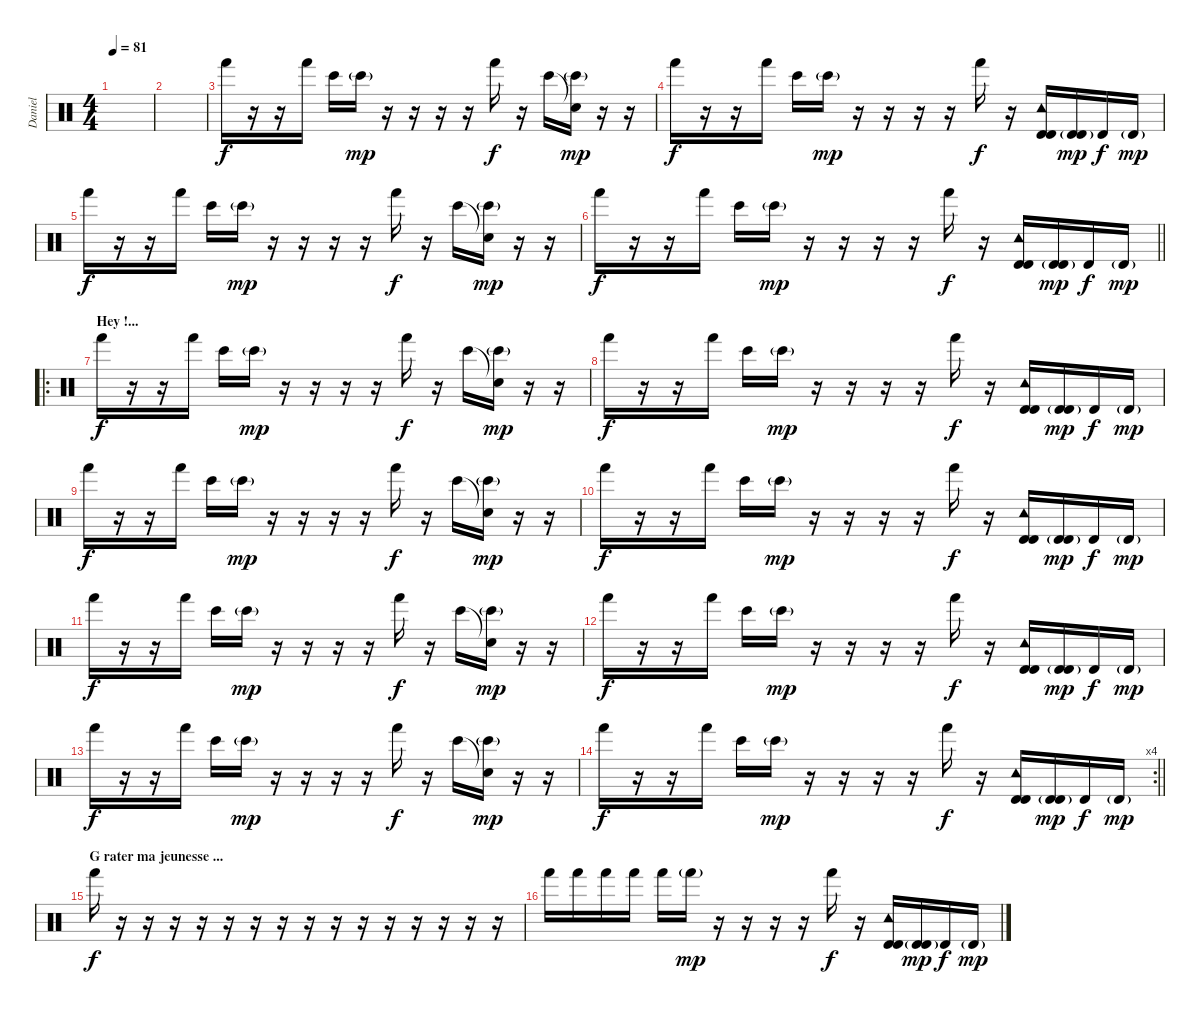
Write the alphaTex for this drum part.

\track ("Daniel" "Daniel") {instrument percussion}
\staff {score}
\articulation defaults
\ts (4 4)
\tempo 81
\clef neutral
\ks c
|
|
"Hand (hit)".16 r.16 r.16 "Hand (hit)".16 "Bongo High (hit)".16 "Bongo High (hit)"{g}.16{dy mp} r.16 r.16 r.16 r.16 "Hand (hit)".16{dy f} r.16 "Bongo High (hit)".16 ("Snare (hit)"{t} "Bongo High (hit)"{g}).16{dy mp} r.16 r.16 |
"Hand (hit)".16{dy f} r.16 r.16 "Hand (hit)".16 "Bongo High (hit)".16 "Bongo High (hit)"{g}.16{dy mp} r.16 r.16 r.16 r.16 "Hand (hit)".16{dy f} r.16 ("Tambourine (hit)" "Timbale high (hit)" "Timbale high (hit)").16 ("Timbale high (hit)"{g} "Timbale high (hit)").16{dy mp} "Timbale high (hit)".16{dy f} "Timbale high (hit)"{g}.16{dy mp} |
"Hand (hit)".16{dy f} r.16 r.16 "Hand (hit)".16 "Bongo High (hit)".16 "Bongo High (hit)"{g}.16{dy mp} r.16 r.16 r.16 r.16 "Hand (hit)".16{dy f} r.16 "Bongo High (hit)".16 ("Snare (hit)"{t} "Bongo High (hit)"{g}).16{dy mp} r.16 r.16 |
\barLineRight lightlight "Hand (hit)".16{dy f}
r.16 r.16 "Hand (hit)".16 "Bongo High (hit)".16 "Bongo High (hit)"{g}.16{dy mp} r.16 r.16 r.16 r.16 "Hand (hit)".16{dy f} r.16 ("Tambourine (hit)" "Timbale high (hit)" "Timbale high (hit)").16 ("Timbale high (hit)"{g} "Timbale high (hit)").16{dy mp} "Timbale high (hit)".16{dy f} "Timbale high (hit)"{g}.16{dy mp} |
\ro
\section ("" "Hey !...")
"Hand (hit)".16{dy f} r.16 r.16 "Hand (hit)".16 "Bongo High (hit)".16 "Bongo High (hit)"{g}.16{dy mp} r.16 r.16 r.16 r.16 "Hand (hit)".16{dy f} r.16 "Bongo High (hit)".16 ("Snare (hit)"{t} "Bongo High (hit)"{g}).16{dy mp} r.16 r.16 |
"Hand (hit)".16{dy f} r.16 r.16 "Hand (hit)".16 "Bongo High (hit)".16 "Bongo High (hit)"{g}.16{dy mp} r.16 r.16 r.16 r.16 "Hand (hit)".16{dy f} r.16 ("Tambourine (hit)" "Timbale high (hit)" "Timbale high (hit)").16 ("Timbale high (hit)"{g} "Timbale high (hit)").16{dy mp} "Timbale high (hit)".16{dy f} "Timbale high (hit)"{g}.16{dy mp} |
"Hand (hit)".16{dy f} r.16 r.16 "Hand (hit)".16 "Bongo High (hit)".16 "Bongo High (hit)"{g}.16{dy mp} r.16 r.16 r.16 r.16 "Hand (hit)".16{dy f} r.16 "Bongo High (hit)".16 ("Snare (hit)"{t} "Bongo High (hit)"{g}).16{dy mp} r.16 r.16 |
"Hand (hit)".16{dy f} r.16 r.16 "Hand (hit)".16 "Bongo High (hit)".16 "Bongo High (hit)"{g}.16{dy mp} r.16 r.16 r.16 r.16 "Hand (hit)".16{dy f} r.16 ("Tambourine (hit)" "Timbale high (hit)" "Timbale high (hit)").16 ("Timbale high (hit)"{g} "Timbale high (hit)").16{dy mp} "Timbale high (hit)".16{dy f} "Timbale high (hit)"{g}.16{dy mp} |
"Hand (hit)".16{dy f} r.16 r.16 "Hand (hit)".16 "Bongo High (hit)".16 "Bongo High (hit)"{g}.16{dy mp} r.16 r.16 r.16 r.16 "Hand (hit)".16{dy f} r.16 "Bongo High (hit)".16 ("Snare (hit)"{t} "Bongo High (hit)"{g}).16{dy mp} r.16 r.16 |
"Hand (hit)".16{dy f} r.16 r.16 "Hand (hit)".16 "Bongo High (hit)".16 "Bongo High (hit)"{g}.16{dy mp} r.16 r.16 r.16 r.16 "Hand (hit)".16{dy f} r.16 ("Tambourine (hit)" "Timbale high (hit)" "Timbale high (hit)").16 ("Timbale high (hit)"{g} "Timbale high (hit)").16{dy mp} "Timbale high (hit)".16{dy f} "Timbale high (hit)"{g}.16{dy mp} |
"Hand (hit)".16{dy f} r.16 r.16 "Hand (hit)".16 "Bongo High (hit)".16 "Bongo High (hit)"{g}.16{dy mp} r.16 r.16 r.16 r.16 "Hand (hit)".16{dy f} r.16 "Bongo High (hit)".16 ("Snare (hit)"{t} "Bongo High (hit)"{g}).16{dy mp} r.16 r.16 |
\rc 4
\barLineRight lightlight "Hand (hit)".16{dy f}
r.16 r.16 "Hand (hit)".16 "Bongo High (hit)".16 "Bongo High (hit)"{g}.16{dy mp} r.16 r.16 r.16 r.16 "Hand (hit)".16{dy f} r.16 ("Tambourine (hit)" "Timbale high (hit)" "Timbale high (hit)").16 ("Timbale high (hit)"{g} "Timbale high (hit)").16{dy mp} "Timbale high (hit)".16{dy f} "Timbale high (hit)"{g}.16{dy mp} |
\section ("" "G rater ma jeunesse ...")
"Hand (hit)".16{dy f} r.16 r.16 r.16 r.16 r.16 r.16 r.16 r.16 r.16 r.16 r.16 r.16 r.16 r.16 r.16 |
"Hand (hit)".16 "Hand (hit)".16 "Hand (hit)".16 "Hand (hit)".16 "Hand (hit)".16 "Hand (hit)"{g}.16{dy mp} r.16 r.16 r.16 r.16 "Hand (hit)".16{dy f} r.16 ("Tambourine (hit)" "Timbale high (hit)" "Timbale high (hit)").16 ("Timbale high (hit)"{g} "Timbale high (hit)").16{dy mp} "Timbale high (hit)".16{dy f} "Timbale high (hit)"{g}.16{dy mp}
